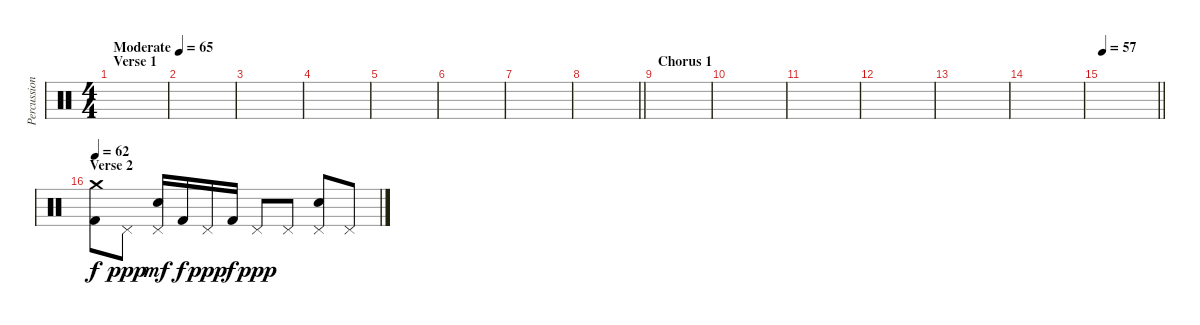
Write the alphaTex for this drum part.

\track ("Percussion" "Percussion") {instrument percussion}
\staff {score}
\articulation defaults
\ts (4 4)
\section ("" "Verse 1")
\tempo (65 "Moderate")
\clef neutral
\ks c
|
|
|
|
|
|
|
\barLineRight lightlight
|
\section ("" "Chorus 1")
|
|
|
|
|
|
\tempo 57
\barLineRight lightlight
|
\section ("" "Verse 2")
\tempo 62
("Crash medium (hit)" "Kick (hit) 2").8 "Pedal Hi-Hat (hit)".8{dy ppp} ("Pedal Hi-Hat (hit)" "Electric Snare (hit)").16{dy mf} "Kick (hit) 2".16{dy f} "Pedal Hi-Hat (hit)".16{dy ppp} "Kick (hit) 2".16{dy f} "Pedal Hi-Hat (hit)".8{dy ppp} "Pedal Hi-Hat (hit)".8 ("Pedal Hi-Hat (hit)" "Electric Snare (hit)").8 "Pedal Hi-Hat (hit)".8
